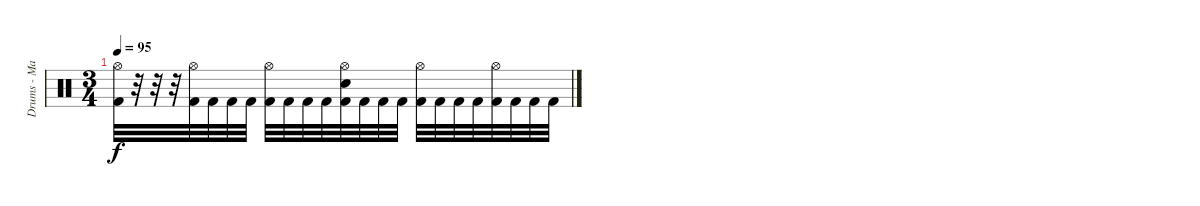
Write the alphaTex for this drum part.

\track ("Drums - Mario Duplantier" "Drums - Ma") {instrument percussion}
\staff {score}
\articulation defaults
\ts (3 4)
\tempo 95
\clef neutral
\ks c
("Hi-Hat (open)" "Kick (hit) 2").32{dy f} r.32 r.32 r.32 ("Hi-Hat (open)" "Kick (hit) 2").32 "Kick (hit) 2".32 "Kick (hit) 2".32 "Kick (hit) 2".32 ("Hi-Hat (open)" "Kick (hit) 2").32 "Kick (hit) 2".32 "Kick (hit) 2".32 "Kick (hit) 2".32 ("Hi-Hat (open)" "Electric Snare (hit)" "Kick (hit) 2").32 "Kick (hit) 2".32 "Kick (hit) 2".32 "Kick (hit) 2".32 ("Hi-Hat (open)" "Kick (hit) 2").32 "Kick (hit) 2".32 "Kick (hit) 2".32 "Kick (hit) 2".32 ("Hi-Hat (open)" "Kick (hit) 2").32 "Kick (hit) 2".32 "Kick (hit) 2".32 "Kick (hit) 2".32
